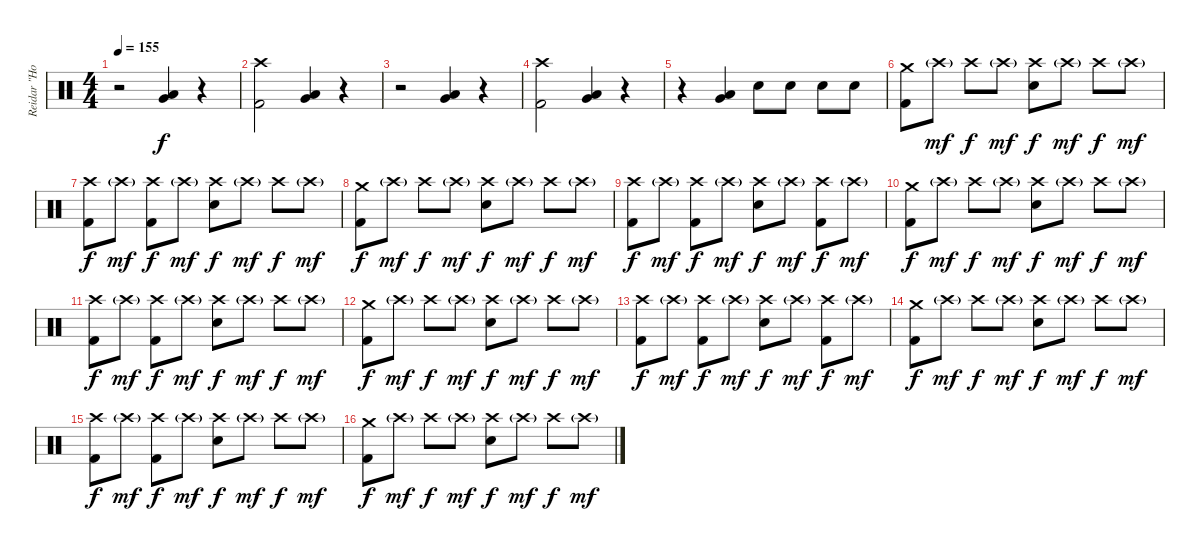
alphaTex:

\track ("Reidar \"Horgh\" Horghagen " "Reidar \"Ho") {instrument percussion}
\staff {score}
\articulation defaults
\ts (4 4)
\tempo 155
\clef neutral
\ks c
r.2{dy f} ("Very Low Tom (hit)" "Low Floor Tom (hit)").4 r.4 |
("Crash high (hit)" "Kick (hit) 2").2 ("Very Low Tom (hit)" "Low Floor Tom (hit)").4 r.4 |
r.2 ("Very Low Tom (hit)" "Low Floor Tom (hit)").4 r.4 |
("Crash high (hit)" "Kick (hit) 2").2 ("Very Low Tom (hit)" "Low Floor Tom (hit)").4 r.4 |
r.4 ("Very Low Tom (hit)" "Low Floor Tom (hit)").4 "Snare (hit) 2".8 "Snare (hit) 2".8 "Snare (hit) 2".8 "Snare (hit) 2".8 |
("Crash medium (hit)" "Kick (hit) 2").8 "Crash high (hit)"{g}.8{dy mf} "Crash high (hit)".8{dy f} "Crash high (hit)"{g}.8{dy mf} ("Crash high (hit)" "Snare (hit) 2").8{dy f} "Crash high (hit)"{g}.8{dy mf} "Crash high (hit)".8{dy f} "Crash high (hit)"{g}.8{dy mf} |
("Crash high (hit)" "Kick (hit) 2").8{dy f} "Crash high (hit)"{g}.8{dy mf} ("Crash high (hit)" "Kick (hit) 2").8{dy f} "Crash high (hit)"{g}.8{dy mf} ("Crash high (hit)" "Snare (hit) 2").8{dy f} "Crash high (hit)"{g}.8{dy mf} "Crash high (hit)".8{dy f} "Crash high (hit)"{g}.8{dy mf} |
("Crash medium (hit)" "Kick (hit) 2").8{dy f} "Crash high (hit)"{g}.8{dy mf} "Crash high (hit)".8{dy f} "Crash high (hit)"{g}.8{dy mf} ("Crash high (hit)" "Snare (hit) 2").8{dy f} "Crash high (hit)"{g}.8{dy mf} "Crash high (hit)".8{dy f} "Crash high (hit)"{g}.8{dy mf} |
("Crash high (hit)" "Kick (hit) 2").8{dy f} "Crash high (hit)"{g}.8{dy mf} ("Crash high (hit)" "Kick (hit) 2").8{dy f} "Crash high (hit)"{g}.8{dy mf} ("Crash high (hit)" "Snare (hit) 2").8{dy f} "Crash high (hit)"{g}.8{dy mf} ("Crash high (hit)" "Kick (hit) 2").8{dy f} "Crash high (hit)"{g}.8{dy mf} |
("Crash medium (hit)" "Kick (hit) 2").8{dy f} "Crash high (hit)"{g}.8{dy mf} "Crash high (hit)".8{dy f} "Crash high (hit)"{g}.8{dy mf} ("Crash high (hit)" "Snare (hit) 2").8{dy f} "Crash high (hit)"{g}.8{dy mf} "Crash high (hit)".8{dy f} "Crash high (hit)"{g}.8{dy mf} |
("Crash high (hit)" "Kick (hit) 2").8{dy f} "Crash high (hit)"{g}.8{dy mf} ("Crash high (hit)" "Kick (hit) 2").8{dy f} "Crash high (hit)"{g}.8{dy mf} ("Crash high (hit)" "Snare (hit) 2").8{dy f} "Crash high (hit)"{g}.8{dy mf} "Crash high (hit)".8{dy f} "Crash high (hit)"{g}.8{dy mf} |
("Crash medium (hit)" "Kick (hit) 2").8{dy f} "Crash high (hit)"{g}.8{dy mf} "Crash high (hit)".8{dy f} "Crash high (hit)"{g}.8{dy mf} ("Crash high (hit)" "Snare (hit) 2").8{dy f} "Crash high (hit)"{g}.8{dy mf} "Crash high (hit)".8{dy f} "Crash high (hit)"{g}.8{dy mf} |
("Crash high (hit)" "Kick (hit) 2").8{dy f} "Crash high (hit)"{g}.8{dy mf} ("Crash high (hit)" "Kick (hit) 2").8{dy f} "Crash high (hit)"{g}.8{dy mf} ("Crash high (hit)" "Snare (hit) 2").8{dy f} "Crash high (hit)"{g}.8{dy mf} ("Crash high (hit)" "Kick (hit) 2").8{dy f} "Crash high (hit)"{g}.8{dy mf} |
("Crash medium (hit)" "Kick (hit) 2").8{dy f} "Crash high (hit)"{g}.8{dy mf} "Crash high (hit)".8{dy f} "Crash high (hit)"{g}.8{dy mf} ("Crash high (hit)" "Snare (hit) 2").8{dy f} "Crash high (hit)"{g}.8{dy mf} "Crash high (hit)".8{dy f} "Crash high (hit)"{g}.8{dy mf} |
("Crash high (hit)" "Kick (hit) 2").8{dy f} "Crash high (hit)"{g}.8{dy mf} ("Crash high (hit)" "Kick (hit) 2").8{dy f} "Crash high (hit)"{g}.8{dy mf} ("Crash high (hit)" "Snare (hit) 2").8{dy f} "Crash high (hit)"{g}.8{dy mf} "Crash high (hit)".8{dy f} "Crash high (hit)"{g}.8{dy mf} |
("Crash medium (hit)" "Kick (hit) 2").8{dy f} "Crash high (hit)"{g}.8{dy mf} "Crash high (hit)".8{dy f} "Crash high (hit)"{g}.8{dy mf} ("Crash high (hit)" "Snare (hit) 2").8{dy f} "Crash high (hit)"{g}.8{dy mf} "Crash high (hit)".8{dy f} "Crash high (hit)"{g}.8{dy mf}
